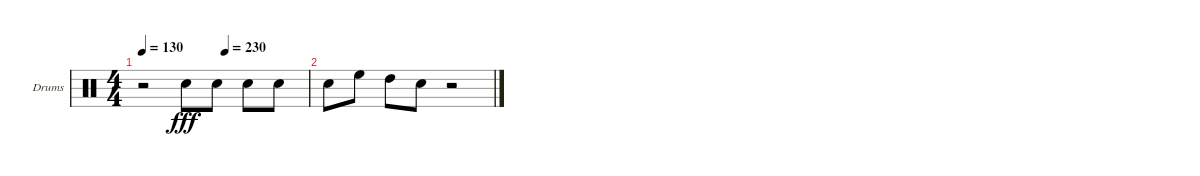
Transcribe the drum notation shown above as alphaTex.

\bracketExtendMode groupsimilarinstruments
\firstSystemTrackNameOrientation horizontal
\otherSystemsTrackNameOrientation horizontal
\track ("Stefan Schwarzmann" "Drums") {instrument percussion}
\staff {score}
\articulation defaults
\ts (4 4)
\tempo 130
\tempo (230 0.5)
\clef neutral
\ks c
r.2{dy f} "Snare (hit) 2".8{dy fff} "Snare (hit) 2".8 "Snare (hit) 2".8 "Snare (hit) 2".8 |
"Snare (hit) 2".8 "High Floor Tom (hit)".8 "High Tom (hit)".8 "Snare (hit) 2".8 r.2
